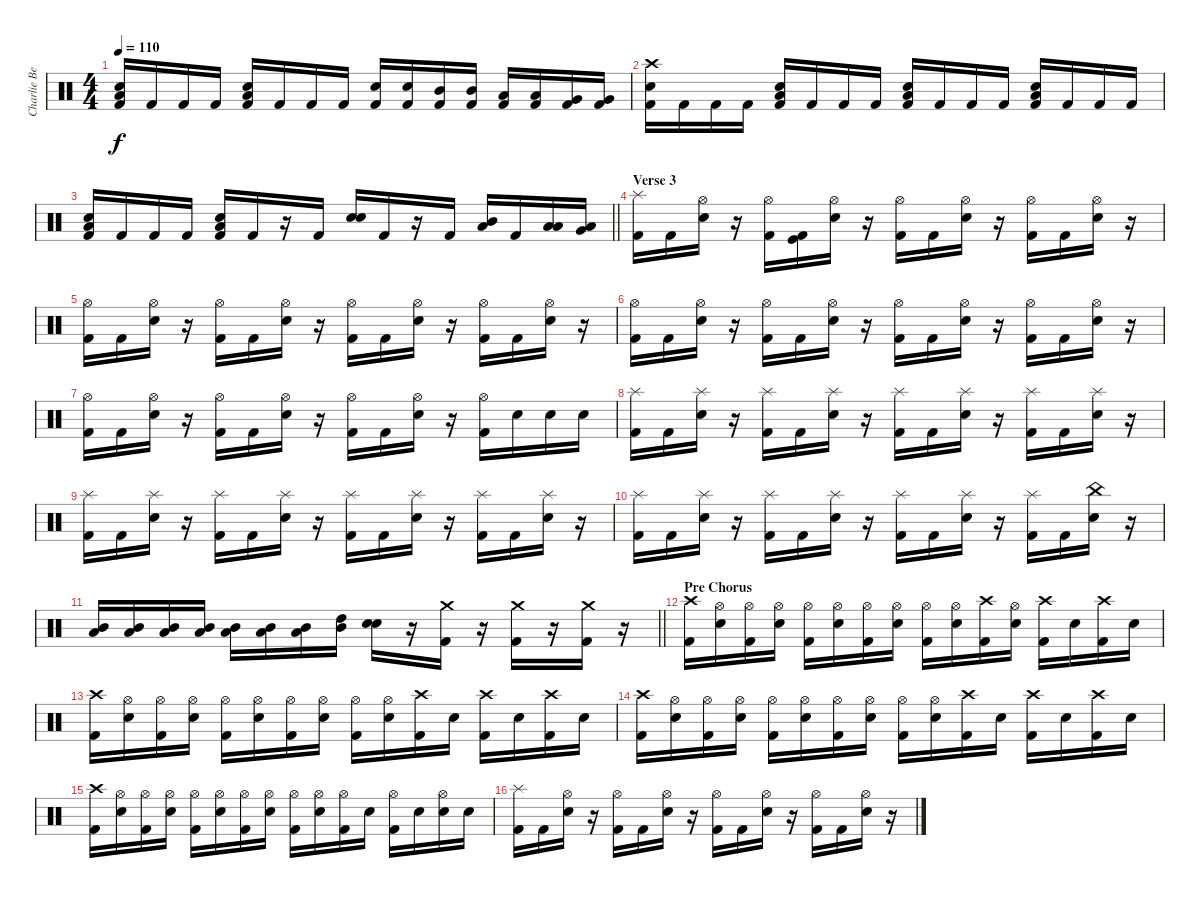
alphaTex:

\track ("Charlie Benante" "Charlie Be") {instrument percussion}
\staff {score}
\articulation defaults
\ts (4 4)
\tempo 110
\clef neutral
\ks c
("Low Floor Tom (hit)" "Electric Snare (hit)" "Kick (hit) 2").16{dy f} "Kick (hit) 2".16 "Kick (hit) 2".16 "Kick (hit) 2".16 ("Low Floor Tom (hit)" "Electric Snare (hit)" "Kick (hit) 2").16 "Kick (hit) 2".16 "Kick (hit) 2".16 "Kick (hit) 2".16 ("Electric Snare (hit)" "Kick (hit) 2").16 ("Electric Snare (hit)" "Kick (hit) 2").16 ("Mid Tom (hit)" "Kick (hit) 2").16 ("Mid Tom (hit)" "Kick (hit) 2").16 ("Low Tom (hit)" "Kick (hit) 2").16 ("Low Tom (hit)" "Kick (hit) 2").16 ("Very Low Tom (hit)" "Kick (hit) 2").16 ("Very Low Tom (hit)" "Kick (hit) 2").16 |
("Crash high (hit)" "Electric Snare (hit)" "Kick (hit) 2").16 "Kick (hit) 2".16 "Kick (hit) 2".16 "Kick (hit) 2".16 ("Low Floor Tom (hit)" "Electric Snare (hit)" "Kick (hit) 2").16 "Kick (hit) 2".16 "Kick (hit) 2".16 "Kick (hit) 2".16 ("Low Floor Tom (hit)" "Electric Snare (hit)" "Kick (hit) 2").16 "Kick (hit) 2".16 "Kick (hit) 2".16 "Kick (hit) 2".16 ("Low Floor Tom (hit)" "Electric Snare (hit)" "Kick (hit) 2").16 "Kick (hit) 2".16 "Kick (hit) 2".16 "Kick (hit) 2".16 |
\barLineRight lightlight
("Low Floor Tom (hit)" "Electric Snare (hit)" "Kick (hit) 2").16 "Kick (hit) 2".16 "Kick (hit) 2".16 "Kick (hit) 2".16 ("Low Floor Tom (hit)" "Electric Snare (hit)" "Kick (hit) 2").16 "Kick (hit) 2".16 r.16 "Kick (hit) 2".16 ("Electric Snare (hit)" "Snare (hit) 2").16 "Kick (hit) 2".16 r.16 "Kick (hit) 2".16 ("Mid Tom (hit)" "Low Floor Tom (hit)").16 "Kick (hit) 2".16 ("Low Tom (hit)" "Low Floor Tom (hit)").16 ("Low Floor Tom (hit)" "Very Low Tom (hit)").16 |
\section ("" "Verse 3")
("Splash (hit)" "Kick (hit) 2").16 "Kick (hit) 2".16 ("Hi-Hat (open)" "Electric Snare (hit)").16 r.16 ("Hi-Hat (open)" "Kick (hit) 2").16 ("Kick (hit)" "Kick (hit) 2").16 ("Hi-Hat (open)" "Electric Snare (hit)").16 r.16 ("Hi-Hat (open)" "Kick (hit) 2").16 "Kick (hit) 2".16 ("Hi-Hat (open)" "Electric Snare (hit)").16 r.16 ("Hi-Hat (open)" "Kick (hit) 2").16 "Kick (hit) 2".16 ("Hi-Hat (open)" "Electric Snare (hit)").16 r.16 |
("Hi-Hat (open)" "Kick (hit) 2").16 "Kick (hit) 2".16 ("Hi-Hat (open)" "Electric Snare (hit)").16 r.16 ("Hi-Hat (open)" "Kick (hit) 2").16 "Kick (hit) 2".16 ("Hi-Hat (open)" "Electric Snare (hit)").16 r.16 ("Hi-Hat (open)" "Kick (hit) 2").16 "Kick (hit) 2".16 ("Hi-Hat (open)" "Electric Snare (hit)").16 r.16 ("Hi-Hat (open)" "Kick (hit) 2").16 "Kick (hit) 2".16 ("Hi-Hat (open)" "Electric Snare (hit)").16 r.16 |
("Hi-Hat (open)" "Kick (hit) 2").16 "Kick (hit) 2".16 ("Hi-Hat (open)" "Electric Snare (hit)").16 r.16 ("Hi-Hat (open)" "Kick (hit) 2").16 "Kick (hit) 2".16 ("Hi-Hat (open)" "Electric Snare (hit)").16 r.16 ("Hi-Hat (open)" "Kick (hit) 2").16 "Kick (hit) 2".16 ("Hi-Hat (open)" "Electric Snare (hit)").16 r.16 ("Hi-Hat (open)" "Kick (hit) 2").16 "Kick (hit) 2".16 ("Hi-Hat (open)" "Electric Snare (hit)").16 r.16 |
("Hi-Hat (open)" "Kick (hit) 2").16 "Kick (hit) 2".16 ("Hi-Hat (open)" "Electric Snare (hit)").16 r.16 ("Hi-Hat (open)" "Kick (hit) 2").16 "Kick (hit) 2".16 ("Hi-Hat (open)" "Electric Snare (hit)").16 r.16 ("Hi-Hat (open)" "Kick (hit) 2").16 "Kick (hit) 2".16 ("Hi-Hat (open)" "Electric Snare (hit)").16 r.16 ("Hi-Hat (open)" "Kick (hit) 2").16 "Electric Snare (hit)".16 "Snare (hit) 2".16 "Electric Snare (hit)".16 |
("Splash (hit)" "Kick (hit) 2").16 "Kick (hit) 2".16 ("Splash (hit)" "Electric Snare (hit)").16 r.16 ("Splash (hit)" "Kick (hit) 2").16 "Kick (hit) 2".16 ("Splash (hit)" "Electric Snare (hit)").16 r.16 ("Splash (hit)" "Kick (hit) 2").16 "Kick (hit) 2".16 ("Splash (hit)" "Electric Snare (hit)").16 r.16 ("Splash (hit)" "Kick (hit) 2").16 "Kick (hit) 2".16 ("Splash (hit)" "Electric Snare (hit)").16 r.16 |
("Splash (hit)" "Kick (hit) 2").16 "Kick (hit) 2".16 ("Splash (hit)" "Electric Snare (hit)").16 r.16 ("Splash (hit)" "Kick (hit) 2").16 "Kick (hit) 2".16 ("Splash (hit)" "Electric Snare (hit)").16 r.16 ("Splash (hit)" "Kick (hit) 2").16 "Kick (hit) 2".16 ("Splash (hit)" "Electric Snare (hit)").16 r.16 ("Splash (hit)" "Kick (hit) 2").16 "Kick (hit) 2".16 ("Splash (hit)" "Electric Snare (hit)").16 r.16 |
("Splash (hit)" "Kick (hit) 2").16 "Kick (hit) 2".16 ("Splash (hit)" "Electric Snare (hit)").16 r.16 ("Splash (hit)" "Kick (hit) 2").16 "Kick (hit) 2".16 ("Splash (hit)" "Electric Snare (hit)").16 r.16 ("Splash (hit)" "Kick (hit) 2").16 "Kick (hit) 2".16 ("Splash (hit)" "Electric Snare (hit)").16 r.16 ("Splash (hit)" "Kick (hit) 2").16 "Kick (hit) 2".16 ("China (hit)" "Electric Snare (hit)").16 r.16 |
\barLineRight lightlight
("Low Tom (hit)" "Mid Tom (hit)").16 ("Low Tom (hit)" "Mid Tom (hit)").16 ("Low Tom (hit)" "Mid Tom (hit)").16 ("Low Tom (hit)" "Mid Tom (hit)").16 ("Low Tom (hit)" "Mid Tom (hit)").16 ("Low Tom (hit)" "Mid Tom (hit)").16 ("Low Tom (hit)" "Mid Tom (hit)").16 ("Mid Tom (hit)" "High Tom (hit)").16 ("Electric Snare (hit)" "Snare (hit) 2").16 r.16 ("Crash medium (hit)" "Kick (hit) 2").16 r.16 ("Crash medium (hit)" "Kick (hit) 2").16 r.16 ("Crash medium (hit)" "Kick (hit) 2").16 r.16 |
\section ("" "Pre Chorus")
("Crash high (hit)" "Kick (hit) 2").16 ("Hi-Hat (open)" "Electric Snare (hit)").16 ("Hi-Hat (open)" "Kick (hit) 2").16 ("Hi-Hat (open)" "Electric Snare (hit)").16 ("Hi-Hat (open)" "Kick (hit) 2").16 ("Hi-Hat (open)" "Electric Snare (hit)").16 ("Hi-Hat (open)" "Kick (hit) 2").16 ("Hi-Hat (open)" "Electric Snare (hit)").16 ("Hi-Hat (open)" "Kick (hit) 2").16 ("Hi-Hat (open)" "Electric Snare (hit)").16 ("Crash high (hit)" "Kick (hit) 2").16 ("Hi-Hat (open)" "Electric Snare (hit)").16 ("Crash high (hit)" "Kick (hit) 2").16 "Electric Snare (hit)".16 ("Crash high (hit)" "Kick (hit) 2").16 "Electric Snare (hit)".16 |
("Crash high (hit)" "Kick (hit) 2").16 ("Hi-Hat (open)" "Electric Snare (hit)").16 ("Hi-Hat (open)" "Kick (hit) 2").16 ("Hi-Hat (open)" "Electric Snare (hit)").16 ("Hi-Hat (open)" "Kick (hit) 2").16 ("Hi-Hat (open)" "Electric Snare (hit)").16 ("Hi-Hat (open)" "Kick (hit) 2").16 ("Hi-Hat (open)" "Electric Snare (hit)").16 ("Hi-Hat (open)" "Kick (hit) 2").16 ("Hi-Hat (open)" "Electric Snare (hit)").16 ("Crash high (hit)" "Kick (hit) 2").16 "Electric Snare (hit)".16 ("Crash high (hit)" "Kick (hit) 2").16 "Electric Snare (hit)".16 ("Crash high (hit)" "Kick (hit) 2").16 "Electric Snare (hit)".16 |
("Crash high (hit)" "Kick (hit) 2").16 ("Hi-Hat (open)" "Electric Snare (hit)").16 ("Hi-Hat (open)" "Kick (hit) 2").16 ("Hi-Hat (open)" "Electric Snare (hit)").16 ("Hi-Hat (open)" "Kick (hit) 2").16 ("Hi-Hat (open)" "Electric Snare (hit)").16 ("Hi-Hat (open)" "Kick (hit) 2").16 ("Hi-Hat (open)" "Electric Snare (hit)").16 ("Hi-Hat (open)" "Kick (hit) 2").16 ("Hi-Hat (open)" "Electric Snare (hit)").16 ("Crash high (hit)" "Kick (hit) 2").16 "Electric Snare (hit)".16 ("Crash high (hit)" "Kick (hit) 2").16 "Electric Snare (hit)".16 ("Crash high (hit)" "Kick (hit) 2").16 "Electric Snare (hit)".16 |
("Crash high (hit)" "Kick (hit) 2").16 ("Hi-Hat (open)" "Electric Snare (hit)").16 ("Hi-Hat (open)" "Kick (hit) 2").16 ("Hi-Hat (open)" "Electric Snare (hit)").16 ("Hi-Hat (open)" "Kick (hit) 2").16 ("Hi-Hat (open)" "Electric Snare (hit)").16 ("Hi-Hat (open)" "Kick (hit) 2").16 ("Hi-Hat (open)" "Electric Snare (hit)").16 ("Hi-Hat (open)" "Kick (hit) 2").16 ("Hi-Hat (open)" "Electric Snare (hit)").16 ("Hi-Hat (open)" "Kick (hit) 2").16 "Electric Snare (hit)".16 ("Hi-Hat (open)" "Kick (hit) 2").16 "Electric Snare (hit)".16 ("Hi-Hat (open)" "Electric Snare (hit)").16 "Electric Snare (hit)".16 |
("Splash (hit)" "Kick (hit) 2").16 "Kick (hit) 2".16 ("Hi-Hat (open)" "Electric Snare (hit)").16 r.16 ("Hi-Hat (open)" "Kick (hit) 2").16 "Kick (hit) 2".16 ("Hi-Hat (open)" "Electric Snare (hit)").16 r.16 ("Hi-Hat (open)" "Kick (hit) 2").16 "Kick (hit) 2".16 ("Hi-Hat (open)" "Electric Snare (hit)").16 r.16 ("Hi-Hat (open)" "Kick (hit) 2").16 "Kick (hit) 2".16 ("Hi-Hat (open)" "Electric Snare (hit)").16 r.16
